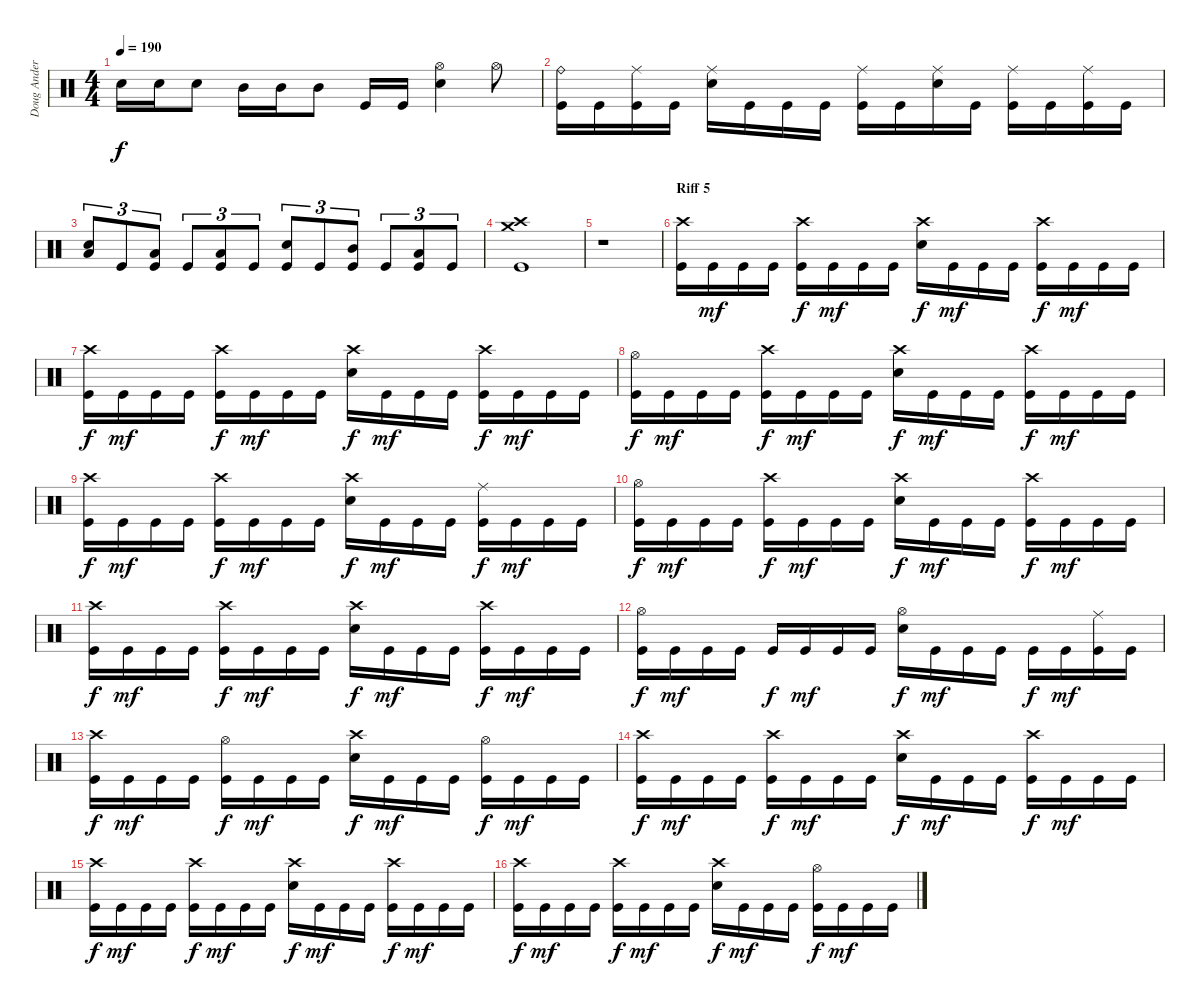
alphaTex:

\track ("Doug Anderson" "Doug Ander") {instrument percussion}
\staff {score}
\articulation defaults
\ts (4 4)
\tempo 190
\clef neutral
\ks c "Snare (hit) 2".16{dy f} "Snare (hit) 2".16 "Snare (hit) 2".8 "Mid Tom (hit)".16 "Mid Tom (hit)".16 "Mid Tom (hit)".8 "Kick (hit)".16 "Kick (hit)".16
("Snare (hit) 2" "Hi-Hat (open)").4 "Hi-Hat (open)".8 |
("Kick (hit)" "Ride (bell)").16 "Kick (hit)".16 ("Kick (hit)" "Ride (middle)").16 "Kick (hit)".16 ("Snare (hit) 2" "Ride (middle)").16 "Kick (hit)".16 "Kick (hit)".16 "Kick (hit)".16 ("Kick (hit)" "Ride (middle)").16 "Kick (hit)".16 ("Snare (hit) 2" "Ride (middle)").16 "Kick (hit)".16 ("Kick (hit)" "Ride (middle)").16 "Kick (hit)".16 ("Kick (hit)" "Ride (middle)").16 "Kick (hit)".16 |
("Snare (hit) 2" "Low Tom (hit)").8{tu (3 2)} "Kick (hit)".8{tu (3 2)} ("Low Tom (hit)" "Kick (hit)").8{tu (3 2)} "Kick (hit)".8{tu (3 2)} ("Low Tom (hit)" "Kick (hit)").8{tu (3 2)} "Kick (hit)".8{tu (3 2)} ("Snare (hit) 2" "Kick (hit)").8{tu (3 2)} "Kick (hit)".8{tu (3 2)} ("Mid Tom (hit)" "Kick (hit)").8{tu (3 2)} "Kick (hit)".8{tu (3 2)} ("Low Tom (hit)" "Kick (hit)").8{tu (3 2)} "Kick (hit)".8{tu (3 2)} |
("Kick (hit)" "Crash high (hit)" "Crash medium (hit)").1 |
r.1 |
\section ("" "Riff 5")
("Kick (hit)" "Crash high (hit)").16 "Kick (hit)".16{dy mf} "Kick (hit)".16 "Kick (hit)".16 ("Kick (hit)" "Crash high (hit)").16{dy f} "Kick (hit)".16{dy mf} "Kick (hit)".16 "Kick (hit)".16 ("Snare (hit) 2" "Crash high (hit)").16{dy f} "Kick (hit)".16{dy mf} "Kick (hit)".16 "Kick (hit)".16 ("Kick (hit)" "Crash high (hit)").16{dy f} "Kick (hit)".16{dy mf} "Kick (hit)".16 "Kick (hit)".16 |
("Kick (hit)" "Crash high (hit)").16{dy f} "Kick (hit)".16{dy mf} "Kick (hit)".16 "Kick (hit)".16 ("Kick (hit)" "Crash high (hit)").16{dy f} "Kick (hit)".16{dy mf} "Kick (hit)".16 "Kick (hit)".16 ("Snare (hit) 2" "Crash high (hit)").16{dy f} "Kick (hit)".16{dy mf} "Kick (hit)".16 "Kick (hit)".16 ("Kick (hit)" "Crash high (hit)").16{dy f} "Kick (hit)".16{dy mf} "Kick (hit)".16 "Kick (hit)".16 |
("Kick (hit)" "Hi-Hat (open)").16{dy f} "Kick (hit)".16{dy mf} "Kick (hit)".16 "Kick (hit)".16 ("Kick (hit)" "Crash high (hit)").16{dy f} "Kick (hit)".16{dy mf} "Kick (hit)".16 "Kick (hit)".16 ("Snare (hit) 2" "Crash high (hit)").16{dy f} "Kick (hit)".16{dy mf} "Kick (hit)".16 "Kick (hit)".16 ("Kick (hit)" "Crash high (hit)").16{dy f} "Kick (hit)".16{dy mf} "Kick (hit)".16 "Kick (hit)".16 |
("Kick (hit)" "Crash high (hit)").16{dy f} "Kick (hit)".16{dy mf} "Kick (hit)".16 "Kick (hit)".16 ("Kick (hit)" "Crash high (hit)").16{dy f} "Kick (hit)".16{dy mf} "Kick (hit)".16 "Kick (hit)".16 ("Snare (hit) 2" "Crash high (hit)").16{dy f} "Kick (hit)".16{dy mf} "Kick (hit)".16 "Kick (hit)".16 ("Kick (hit)" "Ride (middle)").16{dy f} "Kick (hit)".16{dy mf} "Kick (hit)".16 "Kick (hit)".16 |
("Kick (hit)" "Hi-Hat (open)").16{dy f} "Kick (hit)".16{dy mf} "Kick (hit)".16 "Kick (hit)".16 ("Kick (hit)" "Crash high (hit)").16{dy f} "Kick (hit)".16{dy mf} "Kick (hit)".16 "Kick (hit)".16 ("Snare (hit) 2" "Crash high (hit)").16{dy f} "Kick (hit)".16{dy mf} "Kick (hit)".16 "Kick (hit)".16 ("Kick (hit)" "Crash high (hit)").16{dy f} "Kick (hit)".16{dy mf} "Kick (hit)".16 "Kick (hit)".16 |
("Kick (hit)" "Crash high (hit)").16{dy f} "Kick (hit)".16{dy mf} "Kick (hit)".16 "Kick (hit)".16 ("Kick (hit)" "Crash high (hit)").16{dy f} "Kick (hit)".16{dy mf} "Kick (hit)".16 "Kick (hit)".16 ("Snare (hit) 2" "Crash high (hit)").16{dy f} "Kick (hit)".16{dy mf} "Kick (hit)".16 "Kick (hit)".16 ("Kick (hit)" "Crash high (hit)").16{dy f} "Kick (hit)".16{dy mf} "Kick (hit)".16 "Kick (hit)".16 |
("Kick (hit)" "Hi-Hat (open)").16{dy f} "Kick (hit)".16{dy mf} "Kick (hit)".16 "Kick (hit)".16 "Kick (hit)".16{dy f} "Kick (hit)".16{dy mf} "Kick (hit)".16 "Kick (hit)".16 ("Snare (hit) 2" "Hi-Hat (open)").16{dy f} "Kick (hit)".16{dy mf} "Kick (hit)".16 "Kick (hit)".16 "Kick (hit)".16{dy f} "Kick (hit)".16{dy mf} ("Kick (hit)" "Ride (middle)").16 "Kick (hit)".16 |
("Kick (hit)" "Crash high (hit)").16{dy f} "Kick (hit)".16{dy mf} "Kick (hit)".16 "Kick (hit)".16 ("Kick (hit)" "Hi-Hat (open)").16{dy f} "Kick (hit)".16{dy mf} "Kick (hit)".16 "Kick (hit)".16 ("Snare (hit) 2" "Crash high (hit)").16{dy f} "Kick (hit)".16{dy mf} "Kick (hit)".16 "Kick (hit)".16 ("Kick (hit)" "Hi-Hat (open)").16{dy f} "Kick (hit)".16{dy mf} "Kick (hit)".16 "Kick (hit)".16 |
("Kick (hit)" "Crash high (hit)").16{dy f} "Kick (hit)".16{dy mf} "Kick (hit)".16 "Kick (hit)".16 ("Kick (hit)" "Crash high (hit)").16{dy f} "Kick (hit)".16{dy mf} "Kick (hit)".16 "Kick (hit)".16 ("Snare (hit) 2" "Crash high (hit)").16{dy f} "Kick (hit)".16{dy mf} "Kick (hit)".16 "Kick (hit)".16 ("Kick (hit)" "Crash high (hit)").16{dy f} "Kick (hit)".16{dy mf} "Kick (hit)".16 "Kick (hit)".16 |
("Kick (hit)" "Crash high (hit)").16{dy f} "Kick (hit)".16{dy mf} "Kick (hit)".16 "Kick (hit)".16 ("Kick (hit)" "Crash high (hit)").16{dy f} "Kick (hit)".16{dy mf} "Kick (hit)".16 "Kick (hit)".16 ("Snare (hit) 2" "Crash high (hit)").16{dy f} "Kick (hit)".16{dy mf} "Kick (hit)".16 "Kick (hit)".16 ("Kick (hit)" "Crash high (hit)").16{dy f} "Kick (hit)".16{dy mf} "Kick (hit)".16 "Kick (hit)".16 |
("Kick (hit)" "Crash high (hit)").16{dy f} "Kick (hit)".16{dy mf} "Kick (hit)".16 "Kick (hit)".16 ("Kick (hit)" "Crash high (hit)").16{dy f} "Kick (hit)".16{dy mf} "Kick (hit)".16 "Kick (hit)".16 ("Snare (hit) 2" "Crash high (hit)").16{dy f} "Kick (hit)".16{dy mf} "Kick (hit)".16 "Kick (hit)".16 ("Kick (hit)" "Hi-Hat (open)").16{dy f} "Kick (hit)".16{dy mf} "Kick (hit)".16 "Kick (hit)".16
